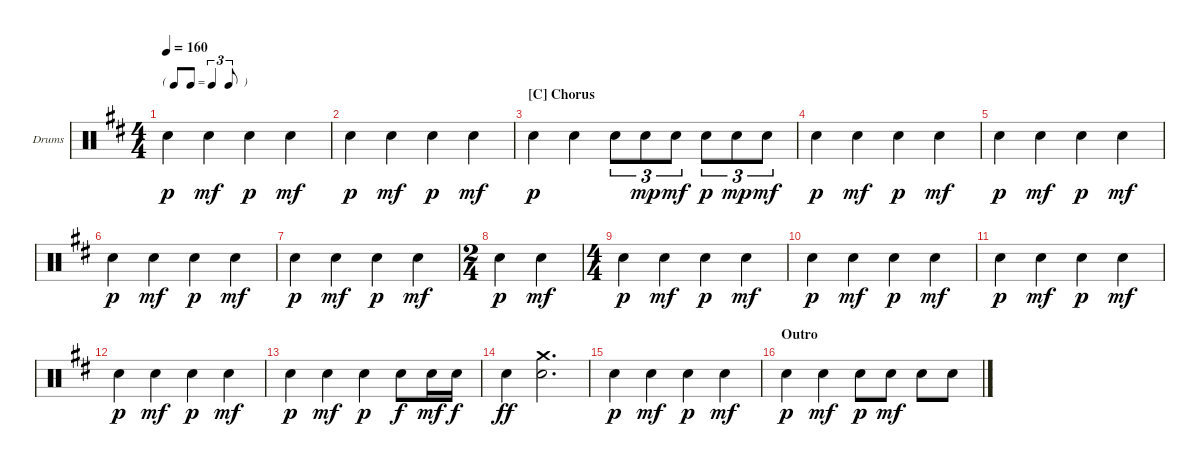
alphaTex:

\defaultSystemsLayout 4
\bracketExtendMode groupsimilarinstruments
\firstSystemTrackNameOrientation horizontal
\otherSystemsTrackNameOrientation horizontal
\track ("Hal Blaine" "Drums") {instrument percussion}
\staff {score}
\articulation defaults
\ts (4 4)
\tf triplet8th
\tempo 160
\clef neutral
\ks bminor "Snare (hit) 2".4{dy p} "Snare (hit) 2".4{dy mf} "Snare (hit) 2".4{dy p} "Snare (hit) 2".4{dy mf}
|
"Snare (hit) 2".4{dy p} "Snare (hit) 2".4{dy mf} "Snare (hit) 2".4{dy p} "Snare (hit) 2".4{dy mf} |
\section ("C" "Chorus")
"Snare (hit) 2".4{dy p} "Snare (hit) 2".4 "Snare (hit) 2".8{tu (3 2)} "Snare (hit) 2".8{tu (3 2) dy mp} "Snare (hit) 2".8{tu (3 2) dy mf} "Snare (hit) 2".8{tu (3 2) dy p} "Snare (hit) 2".8{tu (3 2) dy mp} "Snare (hit) 2".8{tu (3 2) dy mf} |
"Snare (hit) 2".4{dy p} "Snare (hit) 2".4{dy mf} "Snare (hit) 2".4{dy p} "Snare (hit) 2".4{dy mf} |
"Snare (hit) 2".4{dy p} "Snare (hit) 2".4{dy mf} "Snare (hit) 2".4{dy p} "Snare (hit) 2".4{dy mf} |
"Snare (hit) 2".4{dy p} "Snare (hit) 2".4{dy mf} "Snare (hit) 2".4{dy p} "Snare (hit) 2".4{dy mf} |
"Snare (hit) 2".4{dy p} "Snare (hit) 2".4{dy mf} "Snare (hit) 2".4{dy p} "Snare (hit) 2".4{dy mf} |
\ts (2 4)
"Snare (hit) 2".4{dy p} "Snare (hit) 2".4{dy mf} |
\ts (4 4)
"Snare (hit) 2".4{dy p} "Snare (hit) 2".4{dy mf} "Snare (hit) 2".4{dy p} "Snare (hit) 2".4{dy mf} |
"Snare (hit) 2".4{dy p} "Snare (hit) 2".4{dy mf} "Snare (hit) 2".4{dy p} "Snare (hit) 2".4{dy mf} |
"Snare (hit) 2".4{dy p} "Snare (hit) 2".4{dy mf} "Snare (hit) 2".4{dy p} "Snare (hit) 2".4{dy mf} |
"Snare (hit) 2".4{dy p} "Snare (hit) 2".4{dy mf} "Snare (hit) 2".4{dy p} "Snare (hit) 2".4{dy mf} |
"Snare (hit) 2".4{dy p} "Snare (hit) 2".4{dy mf} "Snare (hit) 2".4{dy p} "Snare (hit) 2".8{dy f} "Snare (hit) 2".16{dy mf} "Snare (hit) 2".16{dy f} |
"Snare (hit) 2".4{dy ff} ("Snare (hit) 2" "Crash medium (hit)").2{d} |
"Snare (hit) 2".4{dy p} "Snare (hit) 2".4{dy mf} "Snare (hit) 2".4{dy p} "Snare (hit) 2".4{dy mf} |
\section ("" "Outro")
"Snare (hit) 2".4{dy p} "Snare (hit) 2".4{dy mf} "Snare (hit) 2".8{dy p} "Snare (hit) 2".8{dy mf} "Snare (hit) 2".8 "Snare (hit) 2".8
